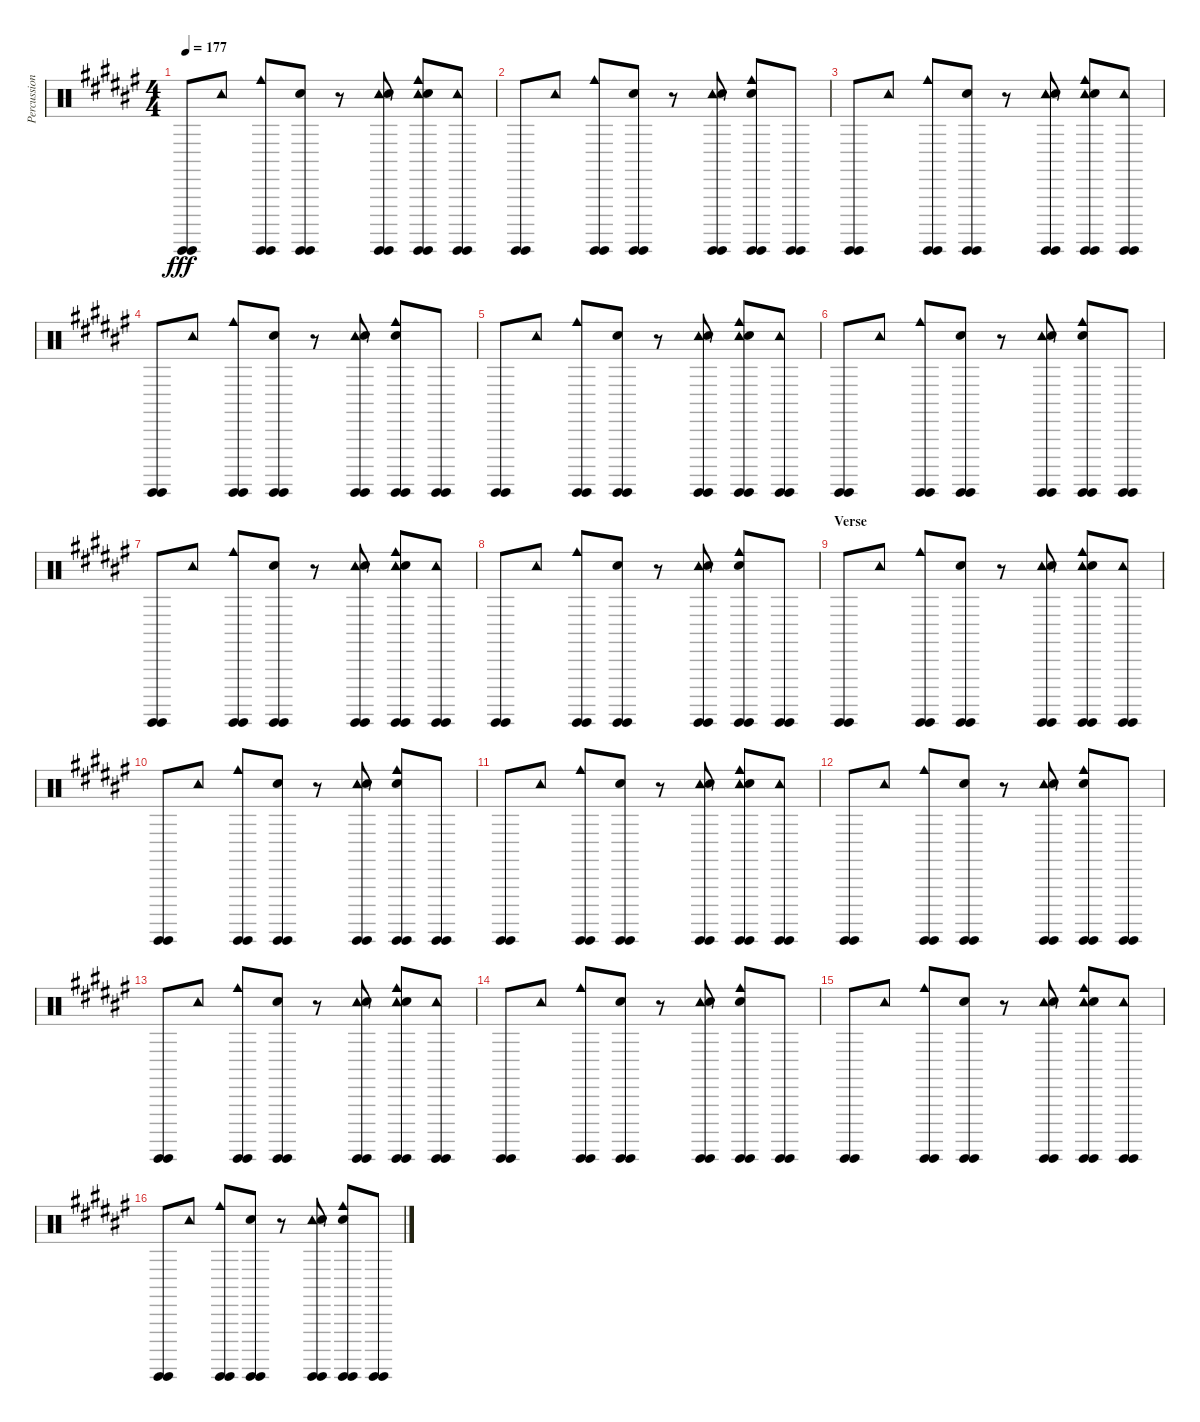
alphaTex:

\track ("Percussion" "Percussion") {instrument percussion}
\staff {score}
\articulation defaults
\ts (4 4)
\tempo 177
\clef neutral
\ks d#minor
("Guiro (hit)" "Guiro (hit)").8{dy fff} "Tambourine (hit)".8 ("Cowbell medium (hit)" "Guiro (hit)" "Guiro (hit)").8 ("Guiro (hit)" "Guiro (hit)" "Hand Clap (hit)").8 r.8 ("Tambourine (hit)" "Guiro (hit)" "Guiro (hit)" "Hand Clap (hit)").8 ("Cowbell medium (hit)" "Tambourine (hit)" "Guiro (hit)" "Guiro (hit)" "Hand Clap (hit)").8 ("Tambourine (hit)" "Guiro (hit)" "Guiro (hit)").8 |
("Guiro (hit)" "Guiro (hit)").8 "Tambourine (hit)".8 ("Cowbell medium (hit)" "Guiro (hit)" "Guiro (hit)").8 ("Guiro (hit)" "Guiro (hit)" "Hand Clap (hit)").8 r.8 ("Tambourine (hit)" "Guiro (hit)" "Guiro (hit)" "Hand Clap (hit)").8 ("Cowbell medium (hit)" "Guiro (hit)" "Guiro (hit)" "Hand Clap (hit)").8 ("Guiro (hit)" "Guiro (hit)").8 |
("Guiro (hit)" "Guiro (hit)").8 "Tambourine (hit)".8 ("Cowbell medium (hit)" "Guiro (hit)" "Guiro (hit)").8 ("Guiro (hit)" "Guiro (hit)" "Hand Clap (hit)").8 r.8 ("Tambourine (hit)" "Guiro (hit)" "Guiro (hit)" "Hand Clap (hit)").8 ("Cowbell medium (hit)" "Tambourine (hit)" "Guiro (hit)" "Guiro (hit)" "Hand Clap (hit)").8 ("Tambourine (hit)" "Guiro (hit)" "Guiro (hit)").8 |
("Guiro (hit)" "Guiro (hit)").8 "Tambourine (hit)".8 ("Cowbell medium (hit)" "Guiro (hit)" "Guiro (hit)").8 ("Guiro (hit)" "Guiro (hit)" "Hand Clap (hit)").8 r.8 ("Tambourine (hit)" "Guiro (hit)" "Guiro (hit)" "Hand Clap (hit)").8 ("Cowbell medium (hit)" "Guiro (hit)" "Guiro (hit)" "Hand Clap (hit)").8 ("Guiro (hit)" "Guiro (hit)").8 |
("Guiro (hit)" "Guiro (hit)").8 "Tambourine (hit)".8 ("Cowbell medium (hit)" "Guiro (hit)" "Guiro (hit)").8 ("Guiro (hit)" "Guiro (hit)" "Hand Clap (hit)").8 r.8 ("Tambourine (hit)" "Guiro (hit)" "Guiro (hit)" "Hand Clap (hit)").8 ("Cowbell medium (hit)" "Tambourine (hit)" "Guiro (hit)" "Guiro (hit)" "Hand Clap (hit)").8 ("Tambourine (hit)" "Guiro (hit)" "Guiro (hit)").8 |
("Guiro (hit)" "Guiro (hit)").8 "Tambourine (hit)".8 ("Cowbell medium (hit)" "Guiro (hit)" "Guiro (hit)").8 ("Guiro (hit)" "Guiro (hit)" "Hand Clap (hit)").8 r.8 ("Tambourine (hit)" "Guiro (hit)" "Guiro (hit)" "Hand Clap (hit)").8 ("Cowbell medium (hit)" "Guiro (hit)" "Guiro (hit)" "Hand Clap (hit)").8 ("Guiro (hit)" "Guiro (hit)").8 |
("Guiro (hit)" "Guiro (hit)").8 "Tambourine (hit)".8 ("Cowbell medium (hit)" "Guiro (hit)" "Guiro (hit)").8 ("Guiro (hit)" "Guiro (hit)" "Hand Clap (hit)").8 r.8 ("Tambourine (hit)" "Guiro (hit)" "Guiro (hit)" "Hand Clap (hit)").8 ("Cowbell medium (hit)" "Tambourine (hit)" "Guiro (hit)" "Guiro (hit)" "Hand Clap (hit)").8 ("Tambourine (hit)" "Guiro (hit)" "Guiro (hit)").8 |
("Guiro (hit)" "Guiro (hit)").8 "Tambourine (hit)".8 ("Cowbell medium (hit)" "Guiro (hit)" "Guiro (hit)").8 ("Guiro (hit)" "Guiro (hit)" "Hand Clap (hit)").8 r.8 ("Tambourine (hit)" "Guiro (hit)" "Guiro (hit)" "Hand Clap (hit)").8 ("Cowbell medium (hit)" "Guiro (hit)" "Guiro (hit)" "Hand Clap (hit)").8 ("Guiro (hit)" "Guiro (hit)").8 |
\section ("" "Verse")
("Guiro (hit)" "Guiro (hit)").8 "Tambourine (hit)".8 ("Cowbell medium (hit)" "Guiro (hit)" "Guiro (hit)").8 ("Guiro (hit)" "Guiro (hit)" "Hand Clap (hit)").8 r.8 ("Tambourine (hit)" "Guiro (hit)" "Guiro (hit)" "Hand Clap (hit)").8 ("Cowbell medium (hit)" "Tambourine (hit)" "Guiro (hit)" "Guiro (hit)" "Hand Clap (hit)").8 ("Tambourine (hit)" "Guiro (hit)" "Guiro (hit)").8 |
("Guiro (hit)" "Guiro (hit)").8 "Tambourine (hit)".8 ("Cowbell medium (hit)" "Guiro (hit)" "Guiro (hit)").8 ("Guiro (hit)" "Guiro (hit)" "Hand Clap (hit)").8 r.8 ("Tambourine (hit)" "Guiro (hit)" "Guiro (hit)" "Hand Clap (hit)").8 ("Cowbell medium (hit)" "Guiro (hit)" "Guiro (hit)" "Hand Clap (hit)").8 ("Guiro (hit)" "Guiro (hit)").8 |
("Guiro (hit)" "Guiro (hit)").8 "Tambourine (hit)".8 ("Cowbell medium (hit)" "Guiro (hit)" "Guiro (hit)").8 ("Guiro (hit)" "Guiro (hit)" "Hand Clap (hit)").8 r.8 ("Tambourine (hit)" "Guiro (hit)" "Guiro (hit)" "Hand Clap (hit)").8 ("Cowbell medium (hit)" "Tambourine (hit)" "Guiro (hit)" "Guiro (hit)" "Hand Clap (hit)").8 ("Tambourine (hit)" "Guiro (hit)" "Guiro (hit)").8 |
("Guiro (hit)" "Guiro (hit)").8 "Tambourine (hit)".8 ("Cowbell medium (hit)" "Guiro (hit)" "Guiro (hit)").8 ("Guiro (hit)" "Guiro (hit)" "Hand Clap (hit)").8 r.8 ("Tambourine (hit)" "Guiro (hit)" "Guiro (hit)" "Hand Clap (hit)").8 ("Cowbell medium (hit)" "Guiro (hit)" "Guiro (hit)" "Hand Clap (hit)").8 ("Guiro (hit)" "Guiro (hit)").8 |
("Guiro (hit)" "Guiro (hit)").8 "Tambourine (hit)".8 ("Cowbell medium (hit)" "Guiro (hit)" "Guiro (hit)").8 ("Guiro (hit)" "Guiro (hit)" "Hand Clap (hit)").8 r.8 ("Tambourine (hit)" "Guiro (hit)" "Guiro (hit)" "Hand Clap (hit)").8 ("Cowbell medium (hit)" "Tambourine (hit)" "Guiro (hit)" "Guiro (hit)" "Hand Clap (hit)").8 ("Tambourine (hit)" "Guiro (hit)" "Guiro (hit)").8 |
("Guiro (hit)" "Guiro (hit)").8 "Tambourine (hit)".8 ("Cowbell medium (hit)" "Guiro (hit)" "Guiro (hit)").8 ("Guiro (hit)" "Guiro (hit)" "Hand Clap (hit)").8 r.8 ("Tambourine (hit)" "Guiro (hit)" "Guiro (hit)" "Hand Clap (hit)").8 ("Cowbell medium (hit)" "Guiro (hit)" "Guiro (hit)" "Hand Clap (hit)").8 ("Guiro (hit)" "Guiro (hit)").8 |
("Guiro (hit)" "Guiro (hit)").8 "Tambourine (hit)".8 ("Cowbell medium (hit)" "Guiro (hit)" "Guiro (hit)").8 ("Guiro (hit)" "Guiro (hit)" "Hand Clap (hit)").8 r.8 ("Tambourine (hit)" "Guiro (hit)" "Guiro (hit)" "Hand Clap (hit)").8 ("Cowbell medium (hit)" "Tambourine (hit)" "Guiro (hit)" "Guiro (hit)" "Hand Clap (hit)").8 ("Tambourine (hit)" "Guiro (hit)" "Guiro (hit)").8 |
("Guiro (hit)" "Guiro (hit)").8 "Tambourine (hit)".8 ("Cowbell medium (hit)" "Guiro (hit)" "Guiro (hit)").8 ("Guiro (hit)" "Guiro (hit)" "Hand Clap (hit)").8 r.8 ("Tambourine (hit)" "Guiro (hit)" "Guiro (hit)" "Hand Clap (hit)").8 ("Cowbell medium (hit)" "Guiro (hit)" "Guiro (hit)" "Hand Clap (hit)").8 ("Guiro (hit)" "Guiro (hit)").8
